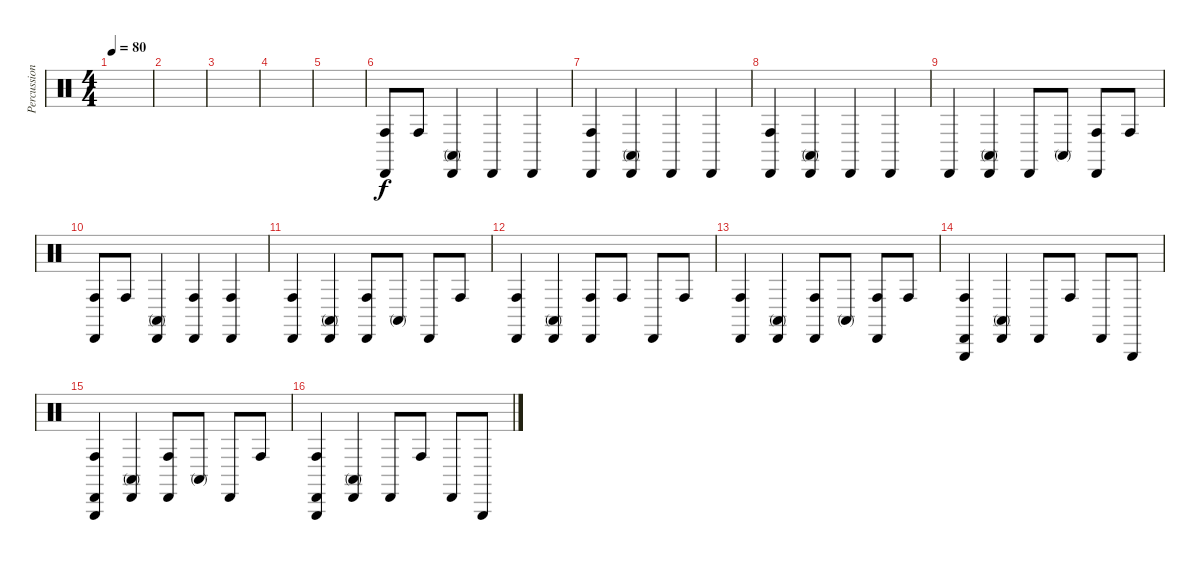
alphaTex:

\track ("Percussions" "Percussion") {instrument percussion}
\staff {score}
\articulation defaults
\ts (4 4)
\tempo 80
\clef neutral
\ks c
|
|
|
|
|
("Cabasa (hit)" "Conga high (hit)").8 "Conga high (hit)".8 ("Cabasa (hit)" "Conga high (mute)").4 "Cabasa (hit)".4 "Cabasa (hit)".4 |
("Cabasa (hit)" "Conga high (hit)").4 ("Cabasa (hit)" "Conga high (mute)").4 "Cabasa (hit)".4 "Cabasa (hit)".4 |
("Cabasa (hit)" "Conga high (hit)").4 ("Cabasa (hit)" "Conga high (mute)").4 "Cabasa (hit)".4 "Cabasa (hit)".4 |
"Cabasa (hit)".4 ("Cabasa (hit)" "Conga high (mute)").4 "Cabasa (hit)".8 "Conga high (mute)".8 ("Cabasa (hit)" "Conga high (hit)").8 "Conga high (hit)".8 |
("Cabasa (hit)" "Conga high (hit)").8 "Conga high (hit)".8 ("Cabasa (hit)" "Conga high (mute)").4 ("Cabasa (hit)" "Conga high (hit)").4 ("Cabasa (hit)" "Conga high (hit)").4 |
("Cabasa (hit)" "Conga high (hit)").4 ("Cabasa (hit)" "Conga high (mute)").4 ("Cabasa (hit)" "Conga high (hit)").8 "Conga high (mute)".8 "Cabasa (hit)".8 "Conga high (hit)".8 |
("Cabasa (hit)" "Conga high (hit)").4 ("Cabasa (hit)" "Conga high (mute)").4 ("Cabasa (hit)" "Conga high (hit)").8 "Conga high (hit)".8 "Cabasa (hit)".8 "Conga high (hit)".8 |
("Cabasa (hit)" "Conga high (hit)").4 ("Cabasa (hit)" "Conga high (mute)").4 ("Cabasa (hit)" "Conga high (hit)").8 "Conga high (mute)".8 ("Cabasa (hit)" "Conga high (hit)").8 "Conga high (hit)".8 |
("Cabasa (hit)" "Triangle (hit)" "Conga high (hit)").4 ("Cabasa (hit)" "Conga high (mute)").4 "Cabasa (hit)".8 "Conga high (hit)".8 "Cabasa (hit)".8 "Triangle (hit)".8 |
("Cabasa (hit)" "Triangle (hit)" "Conga high (hit)").4 ("Cabasa (hit)" "Conga high (mute)").4 ("Cabasa (hit)" "Conga high (hit)").8 "Conga high (mute)".8 "Cabasa (hit)".8 "Conga high (hit)".8 |
("Cabasa (hit)" "Triangle (hit)" "Conga high (hit)").4 ("Cabasa (hit)" "Conga high (mute)").4 "Cabasa (hit)".8 "Conga high (hit)".8 "Cabasa (hit)".8 "Triangle (hit)".8
